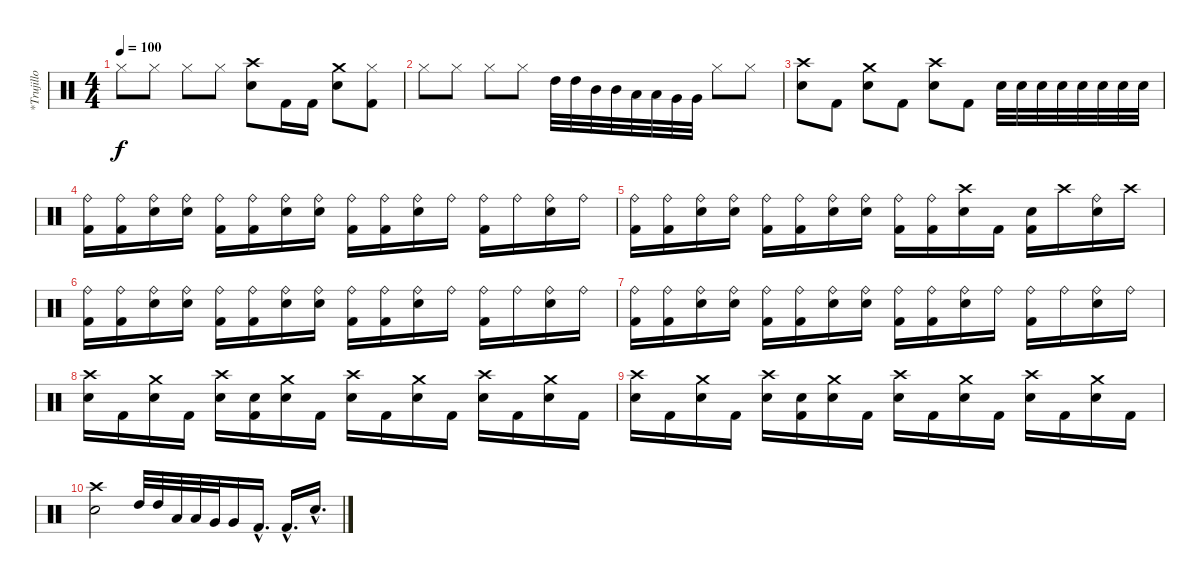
\track ("*Trujillo" "*Trujillo") {instrument percussion}
\staff {score}
\articulation defaults
\ts (4 4)
\tempo 100
\clef neutral
\ks c "Hi-Hat (closed)".8{dy f} "Hi-Hat (closed)".8 "Hi-Hat (closed)".8 "Hi-Hat (closed)".8
("Crash high (hit)" "Electric Snare (hit)").8 "Kick (hit) 2".16 "Kick (hit) 2".16 ("Crash medium (hit)" "Electric Snare (hit)").8 ("Hi-Hat (closed)"{x} "Kick (hit) 2").8 |
"Hi-Hat (closed)".8 "Hi-Hat (closed)".8 "Hi-Hat (closed)".8 "Hi-Hat (closed)".8 "High Tom (hit)".32 "High Tom (hit)".32 "Mid Tom (hit)".32 "Mid Tom (hit)".32 "Low Tom (hit)".32 "Low Tom (hit)".32 "Very Low Tom (hit)".32 "Very Low Tom (hit)".32 "Hi-Hat (closed)".8 "Hi-Hat (closed)".8 |
("Crash high (hit)" "Electric Snare (hit)").8 "Kick (hit) 2".8 ("Crash medium (hit)" "Electric Snare (hit)").8 "Kick (hit) 2".8 ("Crash high (hit)" "Electric Snare (hit)").8 "Kick (hit) 2".8 "Electric Snare (hit)".32 "Electric Snare (hit)".32 "Electric Snare (hit)".32 "Electric Snare (hit)".32 "Electric Snare (hit)".32 "Electric Snare (hit)".32 "Electric Snare (hit)".32 "Electric Snare (hit)".32 |
("Ride (bell)" "Kick (hit) 2").16 ("Ride (bell)" "Kick (hit) 2").16 ("Ride (bell)" "Electric Snare (hit)").16 ("Ride (bell)" "Electric Snare (hit)"{x}).16 ("Ride (bell)" "Kick (hit) 2").16 ("Ride (bell)" "Kick (hit) 2"{x}).16 ("Ride (bell)" "Electric Snare (hit)").16 ("Ride (bell)" "Electric Snare (hit)"{x}).16 ("Ride (bell)" "Kick (hit) 2").16 ("Ride (bell)" "Kick (hit) 2").16 ("Ride (bell)" "Electric Snare (hit)").16 "Ride (bell)".16 ("Ride (bell)" "Kick (hit) 2").16 "Ride (bell)".16 ("Ride (bell)" "Electric Snare (hit)").16 "Ride (bell)".16 |
("Ride (bell)" "Kick (hit) 2").16 ("Ride (bell)" "Kick (hit) 2").16 ("Ride (bell)" "Electric Snare (hit)").16 ("Ride (bell)" "Electric Snare (hit)"{x}).16 ("Ride (bell)" "Kick (hit) 2").16 ("Ride (bell)" "Kick (hit) 2"{x}).16 ("Ride (bell)" "Electric Snare (hit)").16 ("Ride (bell)" "Electric Snare (hit)"{x}).16 ("Ride (bell)" "Kick (hit) 2").16 ("Ride (bell)" "Kick (hit) 2").16 ("Crash high (hit)" "Electric Snare (hit)").16 "Kick (hit) 2".16 ("Kick (hit) 2" "Electric Snare (hit)").16 "Crash high (hit)".16 ("Ride (bell)" "Electric Snare (hit)").16 "Crash high (hit)".16 |
("Ride (bell)" "Kick (hit) 2").16 ("Ride (bell)" "Kick (hit) 2").16 ("Ride (bell)" "Electric Snare (hit)").16 ("Ride (bell)" "Electric Snare (hit)"{x}).16 ("Ride (bell)" "Kick (hit) 2").16 ("Ride (bell)" "Kick (hit) 2"{x}).16 ("Ride (bell)" "Electric Snare (hit)").16 ("Ride (bell)" "Electric Snare (hit)"{x}).16 ("Ride (bell)" "Kick (hit) 2").16 ("Ride (bell)" "Kick (hit) 2").16 ("Ride (bell)" "Electric Snare (hit)").16 "Ride (bell)".16 ("Ride (bell)" "Kick (hit) 2").16 "Ride (bell)".16 ("Ride (bell)" "Electric Snare (hit)").16 "Ride (bell)".16 |
("Ride (bell)" "Kick (hit) 2").16 ("Ride (bell)" "Kick (hit) 2").16 ("Ride (bell)" "Electric Snare (hit)").16 ("Ride (bell)" "Electric Snare (hit)"{x}).16 ("Ride (bell)" "Kick (hit) 2").16 ("Ride (bell)" "Kick (hit) 2"{x}).16 ("Ride (bell)" "Electric Snare (hit)").16 ("Ride (bell)" "Electric Snare (hit)"{x}).16 ("Ride (bell)" "Kick (hit) 2").16 ("Ride (bell)" "Kick (hit) 2").16 ("Ride (bell)" "Electric Snare (hit)").16 "Ride (bell)".16 ("Ride (bell)" "Kick (hit) 2").16 "Ride (bell)".16 ("Ride (bell)" "Electric Snare (hit)").16 "Ride (bell)".16 |
("Crash high (hit)" "Electric Snare (hit)").16 "Kick (hit) 2".16 ("Crash medium (hit)" "Electric Snare (hit)").16 "Kick (hit) 2".16 ("Crash high (hit)" "Electric Snare (hit)").16 ("Snare (hit)" "Kick (hit) 2").16 ("Crash medium (hit)" "Electric Snare (hit)").16 "Kick (hit) 2".16 ("Crash high (hit)" "Electric Snare (hit)").16 "Kick (hit) 2".16 ("Crash medium (hit)" "Electric Snare (hit)").16 "Kick (hit) 2".16 ("Crash high (hit)" "Electric Snare (hit)").16 "Kick (hit) 2".16 ("Crash medium (hit)" "Electric Snare (hit)").16 "Kick (hit) 2".16 |
("Crash high (hit)" "Electric Snare (hit)").16 "Kick (hit) 2".16 ("Crash medium (hit)" "Electric Snare (hit)").16 "Kick (hit) 2".16 ("Crash high (hit)" "Electric Snare (hit)").16 ("Snare (hit)" "Kick (hit) 2").16 ("Crash medium (hit)" "Electric Snare (hit)").16 "Kick (hit) 2".16 ("Crash high (hit)" "Electric Snare (hit)").16 "Kick (hit) 2".16 ("Crash medium (hit)" "Electric Snare (hit)").16 "Kick (hit) 2".16 ("Crash high (hit)" "Electric Snare (hit)").16 "Kick (hit) 2".16 ("Crash medium (hit)" "Electric Snare (hit)").16 "Kick (hit) 2".16 |
("Crash high (hit)" "Electric Snare (hit)").2 "High Tom (hit)".32 "High Tom (hit)".32 "Low Tom (hit)".32 "Low Tom (hit)".32 "Very Low Tom (hit)".32 "Very Low Tom (hit)".16 "Kick (hit) 2"{hac}.16{d} "Kick (hit) 2"{hac}.16{d} "Electric Snare (hit)"{hac}.16{d}
